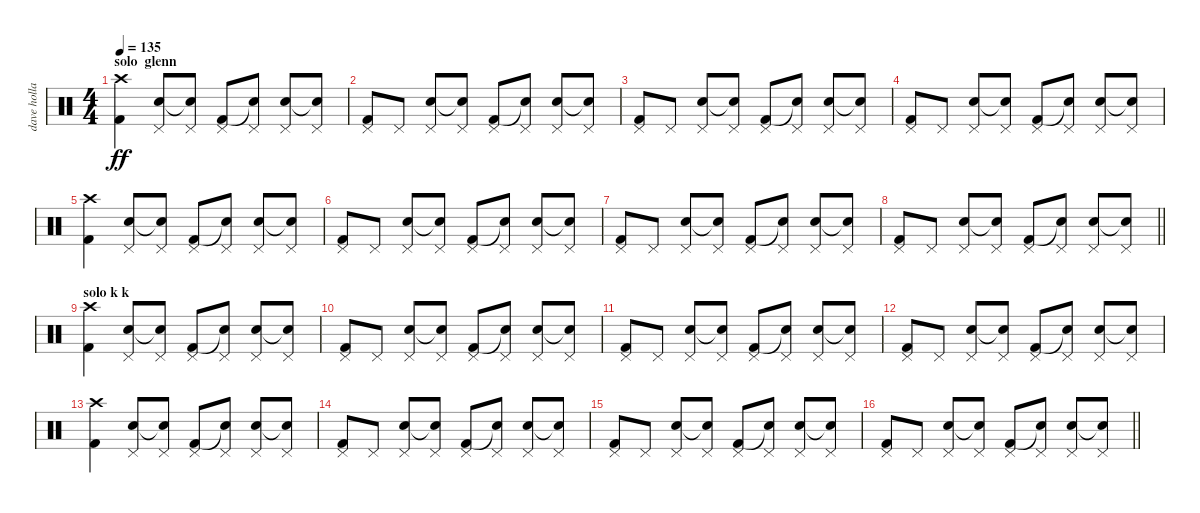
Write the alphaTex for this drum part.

\track ("dave holland" "dave holla") {instrument percussion}
\staff {score}
\articulation defaults
\ts (4 4)
\section ("" "solo  glenn")
\tempo 135
\clef neutral
\ks c
("Crash high (hit)" "Kick (hit) 2").4{dy ff} ("Pedal Hi-Hat (hit)" "Electric Snare (hit)").8 ("Pedal Hi-Hat (hit)" "Electric Snare (hit)"{t}).8 ("Pedal Hi-Hat (hit)" "Kick (hit) 2").8 ("Pedal Hi-Hat (hit)" "Snare (hit)"{t}).8 ("Pedal Hi-Hat (hit)" "Electric Snare (hit)").8 ("Pedal Hi-Hat (hit)" "Snare (hit)"{t}).8 |
("Pedal Hi-Hat (hit)" "Kick (hit) 2").8 "Pedal Hi-Hat (hit)".8 ("Pedal Hi-Hat (hit)" "Electric Snare (hit)").8 ("Pedal Hi-Hat (hit)" "Electric Snare (hit)"{t}).8 ("Pedal Hi-Hat (hit)" "Kick (hit) 2").8 ("Pedal Hi-Hat (hit)" "Snare (hit)"{t}).8 ("Pedal Hi-Hat (hit)" "Electric Snare (hit)").8 ("Pedal Hi-Hat (hit)" "Snare (hit)"{t}).8 |
("Pedal Hi-Hat (hit)" "Kick (hit) 2").8 "Pedal Hi-Hat (hit)".8 ("Pedal Hi-Hat (hit)" "Electric Snare (hit)").8 ("Pedal Hi-Hat (hit)" "Electric Snare (hit)"{t}).8 ("Pedal Hi-Hat (hit)" "Kick (hit) 2").8 ("Pedal Hi-Hat (hit)" "Snare (hit)"{t}).8 ("Pedal Hi-Hat (hit)" "Electric Snare (hit)").8 ("Pedal Hi-Hat (hit)" "Snare (hit)"{t}).8 |
("Pedal Hi-Hat (hit)" "Kick (hit) 2").8 "Pedal Hi-Hat (hit)".8 ("Pedal Hi-Hat (hit)" "Electric Snare (hit)").8 ("Pedal Hi-Hat (hit)" "Electric Snare (hit)"{t}).8 ("Pedal Hi-Hat (hit)" "Kick (hit) 2").8 ("Pedal Hi-Hat (hit)" "Snare (hit)"{t}).8 ("Pedal Hi-Hat (hit)" "Electric Snare (hit)").8 ("Pedal Hi-Hat (hit)" "Snare (hit)"{t}).8 |
("Crash high (hit)" "Kick (hit) 2").4 ("Pedal Hi-Hat (hit)" "Electric Snare (hit)").8 ("Pedal Hi-Hat (hit)" "Electric Snare (hit)"{t}).8 ("Pedal Hi-Hat (hit)" "Kick (hit) 2").8 ("Pedal Hi-Hat (hit)" "Snare (hit)"{t}).8 ("Pedal Hi-Hat (hit)" "Electric Snare (hit)").8 ("Pedal Hi-Hat (hit)" "Snare (hit)"{t}).8 |
("Pedal Hi-Hat (hit)" "Kick (hit) 2").8 "Pedal Hi-Hat (hit)".8 ("Pedal Hi-Hat (hit)" "Electric Snare (hit)").8 ("Pedal Hi-Hat (hit)" "Electric Snare (hit)"{t}).8 ("Pedal Hi-Hat (hit)" "Kick (hit) 2").8 ("Pedal Hi-Hat (hit)" "Snare (hit)"{t}).8 ("Pedal Hi-Hat (hit)" "Electric Snare (hit)").8 ("Pedal Hi-Hat (hit)" "Snare (hit)"{t}).8 |
("Pedal Hi-Hat (hit)" "Kick (hit) 2").8 "Pedal Hi-Hat (hit)".8 ("Pedal Hi-Hat (hit)" "Electric Snare (hit)").8 ("Pedal Hi-Hat (hit)" "Electric Snare (hit)"{t}).8 ("Pedal Hi-Hat (hit)" "Kick (hit) 2").8 ("Pedal Hi-Hat (hit)" "Snare (hit)"{t}).8 ("Pedal Hi-Hat (hit)" "Electric Snare (hit)").8 ("Pedal Hi-Hat (hit)" "Snare (hit)"{t}).8 |
\barLineRight lightlight
("Pedal Hi-Hat (hit)" "Kick (hit) 2").8 "Pedal Hi-Hat (hit)".8 ("Pedal Hi-Hat (hit)" "Electric Snare (hit)").8 ("Pedal Hi-Hat (hit)" "Electric Snare (hit)"{t}).8 ("Pedal Hi-Hat (hit)" "Kick (hit) 2").8 ("Pedal Hi-Hat (hit)" "Snare (hit)"{t}).8 ("Pedal Hi-Hat (hit)" "Electric Snare (hit)").8 ("Pedal Hi-Hat (hit)" "Snare (hit)"{t}).8 |
\section ("" "solo k k")
("Crash high (hit)" "Kick (hit) 2").4 ("Pedal Hi-Hat (hit)" "Electric Snare (hit)").8 ("Pedal Hi-Hat (hit)" "Electric Snare (hit)"{t}).8 ("Pedal Hi-Hat (hit)" "Kick (hit) 2").8 ("Pedal Hi-Hat (hit)" "Snare (hit)"{t}).8 ("Pedal Hi-Hat (hit)" "Electric Snare (hit)").8 ("Pedal Hi-Hat (hit)" "Snare (hit)"{t}).8 |
("Pedal Hi-Hat (hit)" "Kick (hit) 2").8 "Pedal Hi-Hat (hit)".8 ("Pedal Hi-Hat (hit)" "Electric Snare (hit)").8 ("Pedal Hi-Hat (hit)" "Electric Snare (hit)"{t}).8 ("Pedal Hi-Hat (hit)" "Kick (hit) 2").8 ("Pedal Hi-Hat (hit)" "Snare (hit)"{t}).8 ("Pedal Hi-Hat (hit)" "Electric Snare (hit)").8 ("Pedal Hi-Hat (hit)" "Snare (hit)"{t}).8 |
("Pedal Hi-Hat (hit)" "Kick (hit) 2").8 "Pedal Hi-Hat (hit)".8 ("Pedal Hi-Hat (hit)" "Electric Snare (hit)").8 ("Pedal Hi-Hat (hit)" "Electric Snare (hit)"{t}).8 ("Pedal Hi-Hat (hit)" "Kick (hit) 2").8 ("Pedal Hi-Hat (hit)" "Snare (hit)"{t}).8 ("Pedal Hi-Hat (hit)" "Electric Snare (hit)").8 ("Pedal Hi-Hat (hit)" "Snare (hit)"{t}).8 |
("Pedal Hi-Hat (hit)" "Kick (hit) 2").8 "Pedal Hi-Hat (hit)".8 ("Pedal Hi-Hat (hit)" "Electric Snare (hit)").8 ("Pedal Hi-Hat (hit)" "Electric Snare (hit)"{t}).8 ("Pedal Hi-Hat (hit)" "Kick (hit) 2").8 ("Pedal Hi-Hat (hit)" "Snare (hit)"{t}).8 ("Pedal Hi-Hat (hit)" "Electric Snare (hit)").8 ("Pedal Hi-Hat (hit)" "Snare (hit)"{t}).8 |
("Crash high (hit)" "Kick (hit) 2").4 ("Pedal Hi-Hat (hit)" "Electric Snare (hit)").8 ("Pedal Hi-Hat (hit)" "Electric Snare (hit)"{t}).8 ("Pedal Hi-Hat (hit)" "Kick (hit) 2").8 ("Pedal Hi-Hat (hit)" "Snare (hit)"{t}).8 ("Pedal Hi-Hat (hit)" "Electric Snare (hit)").8 ("Pedal Hi-Hat (hit)" "Snare (hit)"{t}).8 |
("Pedal Hi-Hat (hit)" "Kick (hit) 2").8 "Pedal Hi-Hat (hit)".8 ("Pedal Hi-Hat (hit)" "Electric Snare (hit)").8 ("Pedal Hi-Hat (hit)" "Electric Snare (hit)"{t}).8 ("Pedal Hi-Hat (hit)" "Kick (hit) 2").8 ("Pedal Hi-Hat (hit)" "Snare (hit)"{t}).8 ("Pedal Hi-Hat (hit)" "Electric Snare (hit)").8 ("Pedal Hi-Hat (hit)" "Snare (hit)"{t}).8 |
("Pedal Hi-Hat (hit)" "Kick (hit) 2").8 "Pedal Hi-Hat (hit)".8 ("Pedal Hi-Hat (hit)" "Electric Snare (hit)").8 ("Pedal Hi-Hat (hit)" "Electric Snare (hit)"{t}).8 ("Pedal Hi-Hat (hit)" "Kick (hit) 2").8 ("Pedal Hi-Hat (hit)" "Snare (hit)"{t}).8 ("Pedal Hi-Hat (hit)" "Electric Snare (hit)").8 ("Pedal Hi-Hat (hit)" "Snare (hit)"{t}).8 |
\barLineRight lightlight
("Pedal Hi-Hat (hit)" "Kick (hit) 2").8 "Pedal Hi-Hat (hit)".8 ("Pedal Hi-Hat (hit)" "Electric Snare (hit)").8 ("Pedal Hi-Hat (hit)" "Electric Snare (hit)"{t}).8 ("Pedal Hi-Hat (hit)" "Kick (hit) 2").8 ("Pedal Hi-Hat (hit)" "Snare (hit)"{t}).8 ("Pedal Hi-Hat (hit)" "Electric Snare (hit)").8 ("Pedal Hi-Hat (hit)" "Snare (hit)"{t}).8
